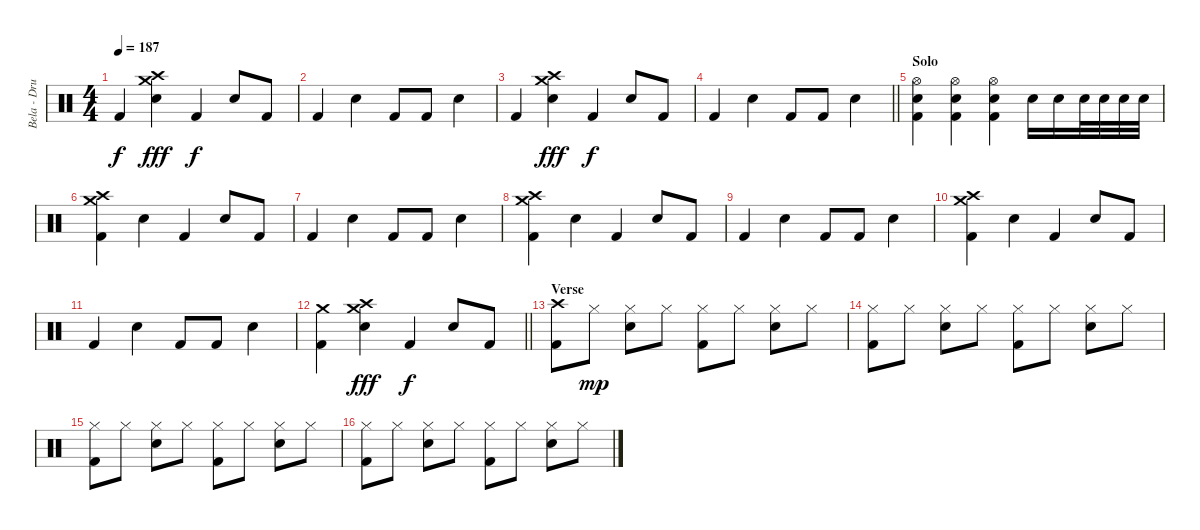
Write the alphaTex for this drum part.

\track ("Bela - Drums" "Bela - Dru") {instrument percussion}
\staff {score}
\articulation defaults
\ts (4 4)
\tempo 187
\clef neutral
\ks c "Kick (hit) 2".4{dy f}
("Crash medium (hit)" "Crash high (hit)" "Snare (hit) 2").4{dy fff} "Kick (hit) 2".4{dy f} "Snare (hit) 2".8 "Kick (hit) 2".8 |
"Kick (hit) 2".4 "Snare (hit) 2".4 "Kick (hit) 2".8 "Kick (hit) 2".8 "Snare (hit) 2".4 |
"Kick (hit) 2".4 ("Crash medium (hit)" "Crash high (hit)" "Snare (hit) 2").4{dy fff} "Kick (hit) 2".4{dy f} "Snare (hit) 2".8 "Kick (hit) 2".8 |
\barLineRight lightlight "Kick (hit) 2".4 "Snare (hit) 2".4 "Kick (hit) 2".8 "Kick (hit) 2".8 "Snare (hit) 2".4
|
\section ("" "Solo")
("Hi-Hat (open)" "Snare (hit) 2" "Kick (hit) 2").4 ("Hi-Hat (open)" "Snare (hit) 2" "Kick (hit) 2").4 ("Hi-Hat (open)" "Snare (hit) 2" "Kick (hit) 2").4 "Snare (hit) 2".16 "Snare (hit) 2".16 "Snare (hit) 2".32 "Snare (hit) 2".32 "Snare (hit) 2".32 "Snare (hit) 2".32 |
("Crash medium (hit)" "Crash high (hit)" "Kick (hit) 2").4 "Snare (hit) 2".4 "Kick (hit) 2".4 "Snare (hit) 2".8 "Kick (hit) 2".8 |
"Kick (hit) 2".4 "Snare (hit) 2".4 "Kick (hit) 2".8 "Kick (hit) 2".8 "Snare (hit) 2".4 |
("Crash medium (hit)" "Crash high (hit)" "Kick (hit) 2").4 "Snare (hit) 2".4 "Kick (hit) 2".4 "Snare (hit) 2".8 "Kick (hit) 2".8 |
"Kick (hit) 2".4 "Snare (hit) 2".4 "Kick (hit) 2".8 "Kick (hit) 2".8 "Snare (hit) 2".4 |
("Crash medium (hit)" "Crash high (hit)" "Kick (hit) 2").4 "Snare (hit) 2".4 "Kick (hit) 2".4 "Snare (hit) 2".8 "Kick (hit) 2".8 |
"Kick (hit) 2".4 "Snare (hit) 2".4 "Kick (hit) 2".8 "Kick (hit) 2".8 "Snare (hit) 2".4 |
\barLineRight lightlight
("Crash medium (hit)" "Kick (hit) 2").4 ("Crash medium (hit)" "Crash high (hit)" "Snare (hit) 2").4{dy fff} "Kick (hit) 2".4{dy f} "Snare (hit) 2".8 "Kick (hit) 2".8 |
\section ("" "Verse")
("Crash high (hit)" "Kick (hit) 2").8 "Hi-Hat (closed)".8{dy mp} ("Hi-Hat (closed)" "Snare (hit) 2").8 "Hi-Hat (closed)".8 ("Hi-Hat (closed)" "Kick (hit) 2").8 "Hi-Hat (closed)".8 ("Hi-Hat (closed)" "Snare (hit) 2").8 "Hi-Hat (closed)".8 |
("Hi-Hat (closed)" "Kick (hit) 2").8 "Hi-Hat (closed)".8 ("Hi-Hat (closed)" "Snare (hit) 2").8 "Hi-Hat (closed)".8 ("Hi-Hat (closed)" "Kick (hit) 2").8 "Hi-Hat (closed)".8 ("Hi-Hat (closed)" "Snare (hit) 2").8 "Hi-Hat (closed)".8 |
("Hi-Hat (closed)" "Kick (hit) 2").8 "Hi-Hat (closed)".8 ("Hi-Hat (closed)" "Snare (hit) 2").8 "Hi-Hat (closed)".8 ("Hi-Hat (closed)" "Kick (hit) 2").8 "Hi-Hat (closed)".8 ("Hi-Hat (closed)" "Snare (hit) 2").8 "Hi-Hat (closed)".8 |
("Hi-Hat (closed)" "Kick (hit) 2").8 "Hi-Hat (closed)".8 ("Hi-Hat (closed)" "Snare (hit) 2").8 "Hi-Hat (closed)".8 ("Hi-Hat (closed)" "Kick (hit) 2").8 "Hi-Hat (closed)".8 ("Hi-Hat (closed)" "Snare (hit) 2").8 "Hi-Hat (closed)".8
